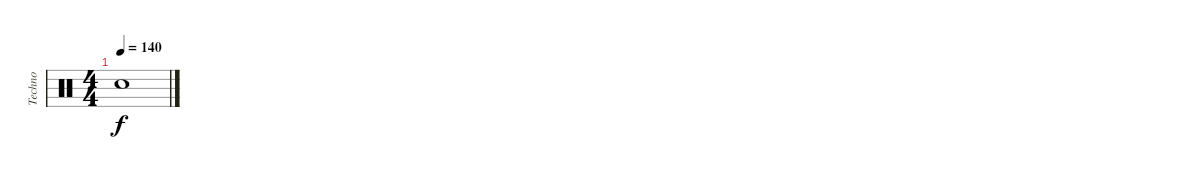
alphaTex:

\track ("Techno" "Techno") {instrument percussion}
\staff {score}
\articulation defaults
\ts (4 4)
\tempo 140
\clef neutral
\ks c "Electric Snare (hit)".1{dy f}
